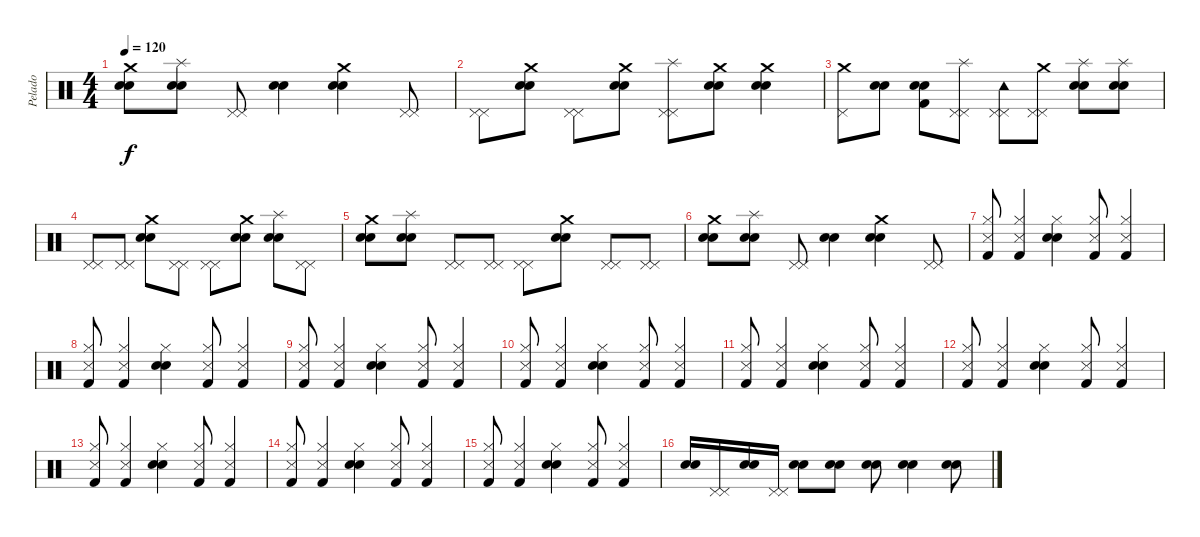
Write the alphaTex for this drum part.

\track ("Pelado" "Pelado") {instrument percussion}
\staff {score}
\articulation defaults
\ts (4 4)
\tempo 120
\clef neutral
\ks c
("Crash medium (hit)" "Snare (hit) 2" "Snare (hit) 2").8{dy f} ("Splash (hit)" "Snare (hit) 2" "Snare (hit) 2").8 ("Pedal Hi-Hat (hit)" "Pedal Hi-Hat (hit)").8 ("Snare (hit) 2" "Snare (hit) 2").4 ("Crash medium (hit)" "Snare (hit) 2" "Snare (hit) 2").4 ("Pedal Hi-Hat (hit)" "Pedal Hi-Hat (hit)").8 |
("Pedal Hi-Hat (hit)" "Pedal Hi-Hat (hit)").8 ("Crash medium (hit)" "Snare (hit) 2" "Snare (hit) 2").8 ("Pedal Hi-Hat (hit)" "Pedal Hi-Hat (hit)").8 ("Crash medium (hit)" "Snare (hit) 2" "Snare (hit) 2").8 ("Splash (hit)" "Pedal Hi-Hat (hit)" "Pedal Hi-Hat (hit)").8 ("Crash medium (hit)" "Snare (hit) 2" "Snare (hit) 2").8 ("Crash medium (hit)" "Snare (hit) 2" "Snare (hit) 2").4 |
("Crash medium (hit)" "Pedal Hi-Hat (hit)").8 ("Snare (hit) 2" "Snare (hit) 2").8 ("Kick (hit) 2" "Snare (hit) 2" "Snare (hit) 2").8 ("Splash (hit)" "Pedal Hi-Hat (hit)" "Pedal Hi-Hat (hit)").8 ("Tambourine (hit)" "Pedal Hi-Hat (hit)" "Pedal Hi-Hat (hit)").8 ("Crash medium (hit)" "Pedal Hi-Hat (hit)" "Pedal Hi-Hat (hit)").8 ("Splash (hit)" "Snare (hit) 2" "Snare (hit) 2").8 ("Splash (hit)" "Electric Snare (hit)" "Electric Snare (hit)").8 |
("Pedal Hi-Hat (hit)" "Pedal Hi-Hat (hit)").8 ("Pedal Hi-Hat (hit)" "Pedal Hi-Hat (hit)").8 ("Crash medium (hit)" "Snare (hit) 2" "Snare (hit) 2").8 ("Pedal Hi-Hat (hit)" "Pedal Hi-Hat (hit)").8 ("Pedal Hi-Hat (hit)" "Pedal Hi-Hat (hit)").8 ("Crash medium (hit)" "Snare (hit) 2" "Snare (hit) 2").8 ("Splash (hit)" "Snare (hit) 2" "Snare (hit) 2").8 ("Pedal Hi-Hat (hit)" "Pedal Hi-Hat (hit)").8 |
("Crash medium (hit)" "Snare (hit) 2" "Snare (hit) 2").8 ("Splash (hit)" "Snare (hit) 2" "Snare (hit) 2").8 ("Pedal Hi-Hat (hit)" "Pedal Hi-Hat (hit)").8 ("Pedal Hi-Hat (hit)" "Pedal Hi-Hat (hit)").8 ("Pedal Hi-Hat (hit)" "Pedal Hi-Hat (hit)").8 ("Crash medium (hit)" "Snare (hit) 2" "Snare (hit) 2").8 ("Pedal Hi-Hat (hit)" "Pedal Hi-Hat (hit)").8 ("Pedal Hi-Hat (hit)" "Pedal Hi-Hat (hit)").8 |
("Crash medium (hit)" "Snare (hit) 2" "Snare (hit) 2").8 ("Splash (hit)" "Snare (hit) 2" "Snare (hit) 2").8 ("Pedal Hi-Hat (hit)" "Pedal Hi-Hat (hit)").8 ("Snare (hit) 2" "Snare (hit) 2").4 ("Crash medium (hit)" "Snare (hit) 2" "Snare (hit) 2").4 ("Pedal Hi-Hat (hit)" "Pedal Hi-Hat (hit)").8 |
("Hi-Hat (closed)" "Snare (side stick) 3" "Kick (hit) 2").8 ("Hi-Hat (closed)" "Snare (side stick) 3" "Kick (hit) 2").4 ("Hi-Hat (closed)" "Hand Clap (hit)" "Hand Clap (hit)").4 ("Hi-Hat (closed)" "Snare (side stick) 3" "Kick (hit) 2").8 ("Hi-Hat (closed)" "Snare (side stick) 3" "Kick (hit) 2").4 |
("Hi-Hat (closed)" "Snare (side stick) 3" "Kick (hit) 2").8 ("Hi-Hat (closed)" "Snare (side stick) 3" "Kick (hit) 2").4 ("Hi-Hat (closed)" "Hand Clap (hit)" "Hand Clap (hit)").4 ("Hi-Hat (closed)" "Snare (side stick) 3" "Kick (hit) 2").8 ("Hi-Hat (closed)" "Snare (side stick) 3" "Kick (hit) 2").4 |
("Hi-Hat (closed)" "Snare (side stick) 3" "Kick (hit) 2").8 ("Hi-Hat (closed)" "Snare (side stick) 3" "Kick (hit) 2").4 ("Hi-Hat (closed)" "Hand Clap (hit)" "Hand Clap (hit)").4 ("Hi-Hat (closed)" "Snare (side stick) 3" "Kick (hit) 2").8 ("Hi-Hat (closed)" "Snare (side stick) 3" "Kick (hit) 2").4 |
("Hi-Hat (closed)" "Snare (side stick) 3" "Kick (hit) 2").8 ("Hi-Hat (closed)" "Snare (side stick) 3" "Kick (hit) 2").4 ("Hi-Hat (closed)" "Hand Clap (hit)" "Hand Clap (hit)").4 ("Hi-Hat (closed)" "Snare (side stick) 3" "Kick (hit) 2").8 ("Hi-Hat (closed)" "Snare (side stick) 3" "Kick (hit) 2").4 |
("Hi-Hat (closed)" "Snare (side stick) 3" "Kick (hit) 2").8 ("Hi-Hat (closed)" "Snare (side stick) 3" "Kick (hit) 2").4 ("Hi-Hat (closed)" "Hand Clap (hit)" "Hand Clap (hit)").4 ("Hi-Hat (closed)" "Snare (side stick) 3" "Kick (hit) 2").8 ("Hi-Hat (closed)" "Snare (side stick) 3" "Kick (hit) 2").4 |
("Hi-Hat (closed)" "Snare (side stick) 3" "Kick (hit) 2").8 ("Hi-Hat (closed)" "Snare (side stick) 3" "Kick (hit) 2").4 ("Hi-Hat (closed)" "Hand Clap (hit)" "Hand Clap (hit)").4 ("Hi-Hat (closed)" "Snare (side stick) 3" "Kick (hit) 2").8 ("Hi-Hat (closed)" "Snare (side stick) 3" "Kick (hit) 2").4 |
("Hi-Hat (closed)" "Snare (side stick) 3" "Kick (hit) 2").8 ("Hi-Hat (closed)" "Snare (side stick) 3" "Kick (hit) 2").4 ("Hi-Hat (closed)" "Hand Clap (hit)" "Hand Clap (hit)").4 ("Hi-Hat (closed)" "Snare (side stick) 3" "Kick (hit) 2").8 ("Hi-Hat (closed)" "Snare (side stick) 3" "Kick (hit) 2").4 |
("Hi-Hat (closed)" "Snare (side stick) 3" "Kick (hit) 2").8 ("Hi-Hat (closed)" "Snare (side stick) 3" "Kick (hit) 2").4 ("Hi-Hat (closed)" "Hand Clap (hit)" "Hand Clap (hit)").4 ("Hi-Hat (closed)" "Snare (side stick) 3" "Kick (hit) 2").8 ("Hi-Hat (closed)" "Snare (side stick) 3" "Kick (hit) 2").4 |
("Hi-Hat (closed)" "Snare (side stick) 3" "Kick (hit) 2").8 ("Hi-Hat (closed)" "Snare (side stick) 3" "Kick (hit) 2").4 ("Hi-Hat (closed)" "Hand Clap (hit)" "Hand Clap (hit)").4 ("Hi-Hat (closed)" "Snare (side stick) 3" "Kick (hit) 2").8 ("Hi-Hat (closed)" "Snare (side stick) 3" "Kick (hit) 2").4 |
("Electric Snare (hit)" "Electric Snare (hit)").16 ("Pedal Hi-Hat (hit)" "Pedal Hi-Hat (hit)").16 ("Electric Snare (hit)" "Electric Snare (hit)").16 ("Pedal Hi-Hat (hit)" "Pedal Hi-Hat (hit)").16 ("Electric Snare (hit)" "Electric Snare (hit)").8 ("Electric Snare (hit)" "Electric Snare (hit)").8 ("Electric Snare (hit)" "Electric Snare (hit)").8 ("Electric Snare (hit)" "Electric Snare (hit)").4 ("Electric Snare (hit)" "Electric Snare (hit)").8
